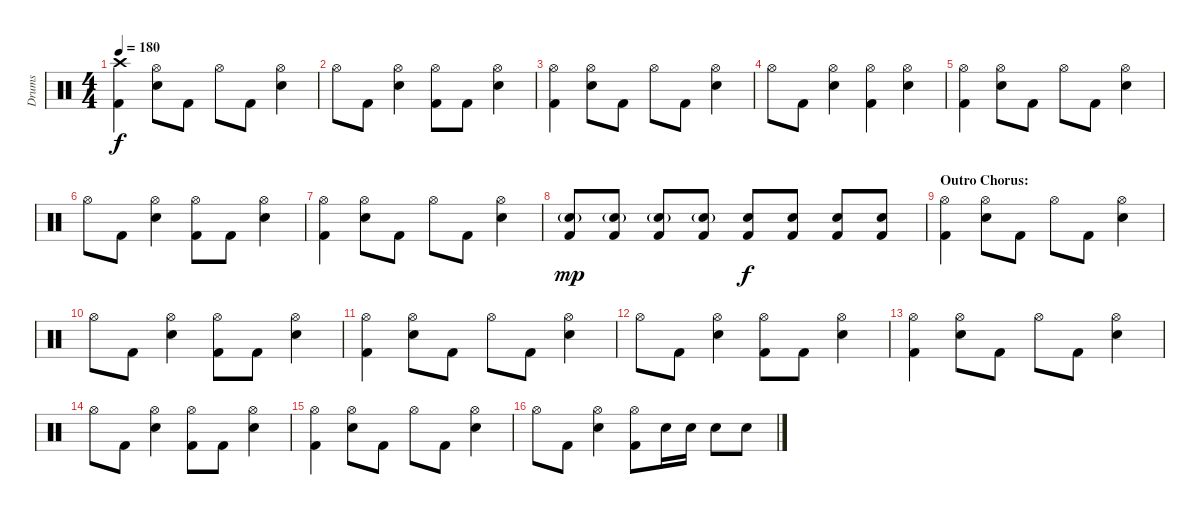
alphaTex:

\track ("Drums" "Drums") {instrument percussion}
\staff {score}
\articulation defaults
\ts (4 4)
\tempo 180
\clef neutral
\ks c
("Crash high (hit)" "Kick (hit) 2").4{dy f} ("Hi-Hat (open)" "Electric Snare (hit)").8 "Kick (hit) 2".8 "Hi-Hat (open)".8 "Kick (hit) 2".8 ("Hi-Hat (open)" "Electric Snare (hit)").4 |
"Hi-Hat (open)".8 "Kick (hit) 2".8 ("Hi-Hat (open)" "Electric Snare (hit)").4 ("Hi-Hat (open)" "Kick (hit) 2").8 "Kick (hit) 2".8 ("Hi-Hat (open)" "Electric Snare (hit)").4 |
("Hi-Hat (open)" "Kick (hit) 2").4 ("Hi-Hat (open)" "Electric Snare (hit)").8 "Kick (hit) 2".8 "Hi-Hat (open)".8 "Kick (hit) 2".8 ("Hi-Hat (open)" "Electric Snare (hit)").4 |
"Hi-Hat (open)".8 "Kick (hit) 2".8 ("Hi-Hat (open)" "Electric Snare (hit)").4 ("Hi-Hat (open)" "Kick (hit) 2").4 ("Hi-Hat (open)" "Electric Snare (hit)").4 |
("Hi-Hat (open)" "Kick (hit) 2").4 ("Hi-Hat (open)" "Electric Snare (hit)").8 "Kick (hit) 2".8 "Hi-Hat (open)".8 "Kick (hit) 2".8 ("Hi-Hat (open)" "Electric Snare (hit)").4 |
"Hi-Hat (open)".8 "Kick (hit) 2".8 ("Hi-Hat (open)" "Electric Snare (hit)").4 ("Hi-Hat (open)" "Kick (hit) 2").8 "Kick (hit) 2".8 ("Hi-Hat (open)" "Electric Snare (hit)").4 |
("Hi-Hat (open)" "Kick (hit) 2").4 ("Hi-Hat (open)" "Electric Snare (hit)").8 "Kick (hit) 2".8 "Hi-Hat (open)".8 "Kick (hit) 2".8 ("Hi-Hat (open)" "Electric Snare (hit)").4 |
("Electric Snare (hit)"{g} "Kick (hit) 2").8{dy mp} ("Electric Snare (hit)"{g} "Kick (hit) 2").8 ("Electric Snare (hit)"{g} "Kick (hit) 2").8 ("Electric Snare (hit)"{g} "Kick (hit) 2").8 ("Electric Snare (hit)" "Kick (hit) 2").8{dy f} ("Electric Snare (hit)" "Kick (hit) 2").8 ("Electric Snare (hit)" "Kick (hit) 2").8 ("Electric Snare (hit)" "Kick (hit) 2").8 |
\section ("" "Outro Chorus:")
("Hi-Hat (open)" "Kick (hit) 2").4 ("Hi-Hat (open)" "Electric Snare (hit)").8 "Kick (hit) 2".8 "Hi-Hat (open)".8 "Kick (hit) 2".8 ("Hi-Hat (open)" "Electric Snare (hit)").4 |
"Hi-Hat (open)".8 "Kick (hit) 2".8 ("Hi-Hat (open)" "Electric Snare (hit)").4 ("Hi-Hat (open)" "Kick (hit) 2").8 "Kick (hit) 2".8 ("Hi-Hat (open)" "Electric Snare (hit)").4 |
("Hi-Hat (open)" "Kick (hit) 2").4 ("Hi-Hat (open)" "Electric Snare (hit)").8 "Kick (hit) 2".8 "Hi-Hat (open)".8 "Kick (hit) 2".8 ("Hi-Hat (open)" "Electric Snare (hit)").4 |
"Hi-Hat (open)".8 "Kick (hit) 2".8 ("Hi-Hat (open)" "Electric Snare (hit)").4 ("Hi-Hat (open)" "Kick (hit) 2").8 "Kick (hit) 2".8 ("Hi-Hat (open)" "Electric Snare (hit)").4 |
("Hi-Hat (open)" "Kick (hit) 2").4 ("Hi-Hat (open)" "Electric Snare (hit)").8 "Kick (hit) 2".8 "Hi-Hat (open)".8 "Kick (hit) 2".8 ("Hi-Hat (open)" "Electric Snare (hit)").4 |
"Hi-Hat (open)".8 "Kick (hit) 2".8 ("Hi-Hat (open)" "Electric Snare (hit)").4 ("Hi-Hat (open)" "Kick (hit) 2").8 "Kick (hit) 2".8 ("Hi-Hat (open)" "Electric Snare (hit)").4 |
("Hi-Hat (open)" "Kick (hit) 2").4 ("Hi-Hat (open)" "Electric Snare (hit)").8 "Kick (hit) 2".8 "Hi-Hat (open)".8 "Kick (hit) 2".8 ("Hi-Hat (open)" "Electric Snare (hit)").4 |
"Hi-Hat (open)".8 "Kick (hit) 2".8 ("Hi-Hat (open)" "Electric Snare (hit)").4 ("Hi-Hat (open)" "Kick (hit) 2").8 "Electric Snare (hit)".16 "Electric Snare (hit)".16 "Electric Snare (hit)".8 "Electric Snare (hit)".8
